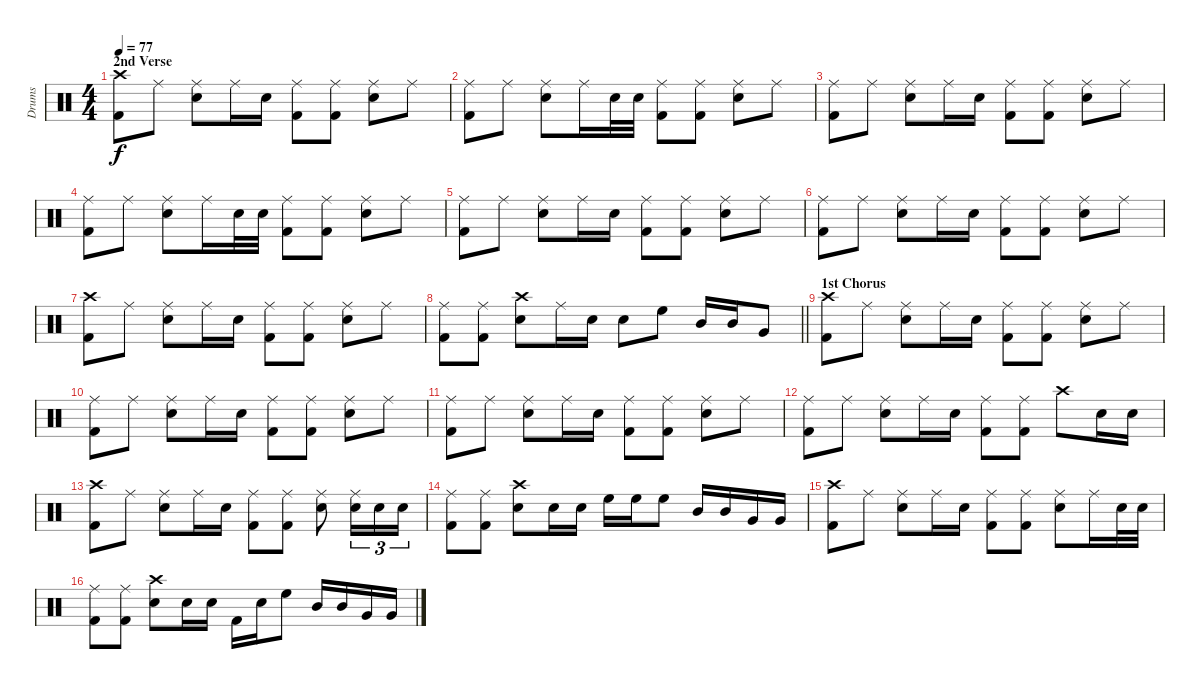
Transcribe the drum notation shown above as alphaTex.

\track ("Drums" "Drums") {instrument percussion}
\staff {score}
\articulation defaults
\ts (4 4)
\section ("" "2nd Verse")
\tempo 77
\clef neutral
\ks c
("Crash high (hit)" "Kick (hit) 2").8{dy f} "Ride (middle)".8 ("Ride (middle)" "Snare (hit) 2").8 "Ride (middle)".16 "Snare (hit) 2".16 ("Ride (middle)" "Kick (hit) 2").8 ("Ride (middle)" "Kick (hit) 2").8 ("Ride (middle)" "Snare (hit) 2").8 "Ride (middle)".8 |
("Ride (middle)" "Kick (hit) 2").8 "Ride (middle)".8 ("Ride (middle)" "Snare (hit) 2").8 "Ride (middle)".16 "Snare (hit) 2".32 "Snare (hit) 2".32 ("Ride (middle)" "Kick (hit) 2").8 ("Ride (middle)" "Kick (hit) 2").8 ("Ride (middle)" "Snare (hit) 2").8 "Ride (middle)".8 |
("Ride (middle)" "Kick (hit) 2").8 "Ride (middle)".8 ("Ride (middle)" "Snare (hit) 2").8 "Ride (middle)".16 "Snare (hit) 2".16 ("Ride (middle)" "Kick (hit) 2").8 ("Ride (middle)" "Kick (hit) 2").8 ("Ride (middle)" "Snare (hit) 2").8 "Ride (middle)".8 |
("Ride (middle)" "Kick (hit) 2").8 "Ride (middle)".8 ("Ride (middle)" "Snare (hit) 2").8 "Ride (middle)".16 "Snare (hit) 2".32 "Snare (hit) 2".32 ("Ride (middle)" "Kick (hit) 2").8 ("Ride (middle)" "Kick (hit) 2").8 ("Ride (middle)" "Snare (hit) 2").8 "Ride (middle)".8 |
("Ride (middle)" "Kick (hit) 2").8 "Ride (middle)".8 ("Ride (middle)" "Snare (hit) 2").8 "Ride (middle)".16 "Snare (hit) 2".16 ("Ride (middle)" "Kick (hit) 2").8 ("Ride (middle)" "Kick (hit) 2").8 ("Ride (middle)" "Snare (hit) 2").8 "Ride (middle)".8 |
("Ride (middle)" "Kick (hit) 2").8 "Ride (middle)".8 ("Ride (middle)" "Snare (hit) 2").8 "Ride (middle)".16 "Snare (hit) 2".16 ("Ride (middle)" "Kick (hit) 2").8 ("Ride (middle)" "Kick (hit) 2").8 ("Ride (middle)" "Snare (hit) 2").8 "Ride (middle)".8 |
("Crash high (hit)" "Kick (hit) 2").8 "Ride (middle)".8 ("Ride (middle)" "Snare (hit) 2").8 "Ride (middle)".16 "Snare (hit) 2".16 ("Ride (middle)" "Kick (hit) 2").8 ("Ride (middle)" "Kick (hit) 2").8 ("Ride (middle)" "Snare (hit) 2").8 "Ride (middle)".8 |
\barLineRight lightlight
("Ride (middle)" "Kick (hit) 2").8 ("Ride (middle)" "Kick (hit) 2").8 ("Crash high (hit)" "Snare (hit) 2").8 "Ride (middle)".16 "Snare (hit) 2".16 "Snare (hit) 2".8 "High Floor Tom (hit)".8 "Mid Tom (hit)".16 "Mid Tom (hit)".16 "Very Low Tom (hit)".8 |
\section ("" "1st Chorus")
("Crash high (hit)" "Kick (hit) 2").8 "Ride (middle)".8 ("Ride (middle)" "Snare (hit) 2").8 "Ride (middle)".16 "Snare (hit) 2".16 ("Ride (middle)" "Kick (hit) 2").8 ("Ride (middle)" "Kick (hit) 2").8 ("Ride (middle)" "Snare (hit) 2").8 "Ride (middle)".8 |
("Ride (middle)" "Kick (hit) 2").8 "Ride (middle)".8 ("Ride (middle)" "Snare (hit) 2").8 "Ride (middle)".16 "Snare (hit) 2".16 ("Ride (middle)" "Kick (hit) 2").8 ("Ride (middle)" "Kick (hit) 2").8 ("Ride (middle)" "Snare (hit) 2").8 "Ride (middle)".8 |
("Ride (middle)" "Kick (hit) 2").8 "Ride (middle)".8 ("Ride (middle)" "Snare (hit) 2").8 "Ride (middle)".16 "Snare (hit) 2".16 ("Ride (middle)" "Kick (hit) 2").8 ("Ride (middle)" "Kick (hit) 2").8 ("Ride (middle)" "Snare (hit) 2").8 "Ride (middle)".8 |
("Ride (middle)" "Kick (hit) 2").8 "Ride (middle)".8 ("Ride (middle)" "Snare (hit) 2").8 "Ride (middle)".16 "Snare (hit) 2".16 ("Ride (middle)" "Kick (hit) 2").8 ("Ride (middle)" "Kick (hit) 2").8 "Crash high (hit)".8 "Snare (hit) 2".16 "Snare (hit) 2".16 |
("Crash high (hit)" "Kick (hit) 2").8 "Ride (middle)".8 ("Ride (middle)" "Snare (hit) 2").8 "Ride (middle)".16 "Snare (hit) 2".16 ("Ride (middle)" "Kick (hit) 2").8 ("Ride (middle)" "Kick (hit) 2").8 ("Ride (middle)" "Snare (hit) 2").8 ("Ride (middle)" "Snare (hit) 2").16{tu (3 2)} "Snare (hit) 2".16{tu (3 2)} "Snare (hit) 2".16{tu (3 2)} |
("Ride (middle)" "Kick (hit) 2").8 ("Ride (middle)" "Kick (hit) 2").8 ("Crash high (hit)" "Snare (hit) 2").8 "Snare (hit) 2".16 "Snare (hit) 2".16 "High Floor Tom (hit)".16 "High Floor Tom (hit)".16 "High Floor Tom (hit)".8 "Mid Tom (hit)".16 "Mid Tom (hit)".16 "Very Low Tom (hit)".16 "Very Low Tom (hit)".16 |
("Crash high (hit)" "Kick (hit) 2").8 "Ride (middle)".8 ("Ride (middle)" "Snare (hit) 2").8 "Ride (middle)".16 "Snare (hit) 2".16 ("Ride (middle)" "Kick (hit) 2").8 ("Ride (middle)" "Kick (hit) 2").8 ("Ride (middle)" "Snare (hit) 2").8 "Ride (middle)".16 "Snare (hit) 2".32 "Snare (hit) 2".32 |
("Ride (middle)" "Kick (hit) 2").8 ("Ride (middle)" "Kick (hit) 2").8 ("Crash high (hit)" "Snare (hit) 2").8 "Snare (hit) 2".16 "Snare (hit) 2".16 "Kick (hit) 2".16 "Snare (hit) 2".16 "High Floor Tom (hit)".8 "Mid Tom (hit)".16 "Mid Tom (hit)".16 "Very Low Tom (hit)".16 "Very Low Tom (hit)".16
